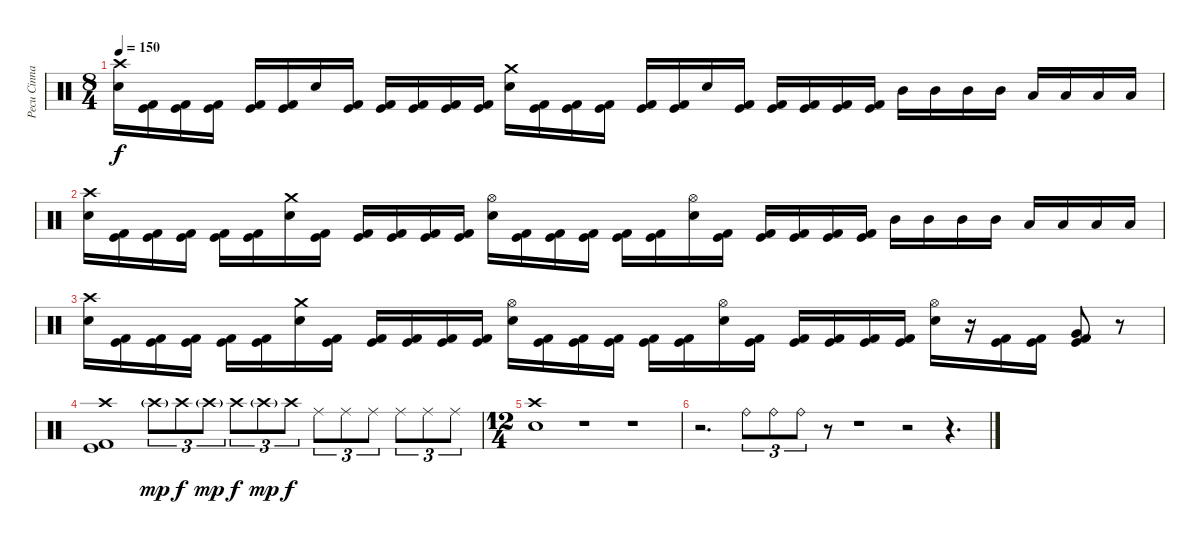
\track ("Pecu Cinnari" "Pecu Cinna") {instrument percussion}
\staff {score}
\articulation defaults
\ts (8 4)
\tempo 150
\clef neutral
\ks c
("Crash high (hit)" "Snare (hit) 2").16{dy f} ("Kick (hit)" "Kick (hit) 2").16 ("Kick (hit)" "Kick (hit) 2").16 ("Kick (hit)" "Kick (hit) 2").16 ("Kick (hit)" "Kick (hit) 2").16 ("Kick (hit)" "Kick (hit) 2").16 "Snare (hit) 2".16 ("Kick (hit)" "Kick (hit) 2").16 ("Kick (hit)" "Kick (hit) 2").16 ("Kick (hit)" "Kick (hit) 2").16 ("Kick (hit)" "Kick (hit) 2").16 ("Kick (hit)" "Kick (hit) 2").16 ("Crash medium (hit)" "Snare (hit) 2").16 ("Kick (hit)" "Kick (hit) 2").16 ("Kick (hit)" "Kick (hit) 2").16 ("Kick (hit)" "Kick (hit) 2").16 ("Kick (hit)" "Kick (hit) 2").16 ("Kick (hit)" "Kick (hit) 2").16 "Snare (hit) 2".16 ("Kick (hit)" "Kick (hit) 2").16 ("Kick (hit)" "Kick (hit) 2").16 ("Kick (hit)" "Kick (hit) 2").16 ("Kick (hit)" "Kick (hit) 2").16 ("Kick (hit)" "Kick (hit) 2").16 "Mid Tom (hit)".16 "Mid Tom (hit)".16 "Mid Tom (hit)".16 "Mid Tom (hit)".16 "Low Tom (hit)".16 "Low Tom (hit)".16 "Low Tom (hit)".16 "Low Tom (hit)".16 |
("Crash high (hit)" "Snare (hit) 2").16 ("Kick (hit)" "Kick (hit) 2").16 ("Kick (hit)" "Kick (hit) 2").16 ("Kick (hit)" "Kick (hit) 2").16 ("Kick (hit)" "Kick (hit) 2").16 ("Kick (hit)" "Kick (hit) 2").16 ("Crash medium (hit)" "Snare (hit) 2").16 ("Kick (hit)" "Kick (hit) 2").16 ("Kick (hit)" "Kick (hit) 2").16 ("Kick (hit)" "Kick (hit) 2").16 ("Kick (hit)" "Kick (hit) 2").16 ("Kick (hit)" "Kick (hit) 2").16 ("Hi-Hat (open)" "Snare (hit) 2").16 ("Kick (hit)" "Kick (hit) 2").16 ("Kick (hit)" "Kick (hit) 2").16 ("Kick (hit)" "Kick (hit) 2").16 ("Kick (hit)" "Kick (hit) 2").16 ("Kick (hit)" "Kick (hit) 2").16 ("Hi-Hat (open)" "Snare (hit) 2").16 ("Kick (hit)" "Kick (hit) 2").16 ("Kick (hit)" "Kick (hit) 2").16 ("Kick (hit)" "Kick (hit) 2").16 ("Kick (hit)" "Kick (hit) 2").16 ("Kick (hit)" "Kick (hit) 2").16 "Mid Tom (hit)".16 "Mid Tom (hit)".16 "Mid Tom (hit)".16 "Mid Tom (hit)".16 "Low Tom (hit)".16 "Low Tom (hit)".16 "Low Tom (hit)".16 "Low Tom (hit)".16 |
("Crash high (hit)" "Snare (hit) 2").16 ("Kick (hit)" "Kick (hit) 2").16 ("Kick (hit)" "Kick (hit) 2").16 ("Kick (hit)" "Kick (hit) 2").16 ("Kick (hit)" "Kick (hit) 2").16 ("Kick (hit)" "Kick (hit) 2").16 ("Crash medium (hit)" "Snare (hit) 2").16 ("Kick (hit)" "Kick (hit) 2").16 ("Kick (hit)" "Kick (hit) 2").16 ("Kick (hit)" "Kick (hit) 2").16 ("Kick (hit)" "Kick (hit) 2").16 ("Kick (hit)" "Kick (hit) 2").16 ("Hi-Hat (open)" "Snare (hit) 2").16 ("Kick (hit)" "Kick (hit) 2").16 ("Kick (hit)" "Kick (hit) 2").16 ("Kick (hit)" "Kick (hit) 2").16 ("Kick (hit)" "Kick (hit) 2").16 ("Kick (hit)" "Kick (hit) 2").16 ("Hi-Hat (open)" "Snare (hit) 2").16 ("Kick (hit)" "Kick (hit) 2").16 ("Kick (hit)" "Kick (hit) 2").16 ("Kick (hit)" "Kick (hit) 2").16 ("Kick (hit)" "Kick (hit) 2").16 ("Kick (hit)" "Kick (hit) 2").16 ("Hi-Hat (open)" "Snare (hit) 2").16 r.16 ("Kick (hit)" "Kick (hit) 2").16 ("Kick (hit)" "Kick (hit) 2").16 ("Very Low Tom (hit)" "Kick (hit)" "Kick (hit) 2").8 r.8 |
("Crash high (hit)" "Kick (hit)" "Kick (hit) 2").1 "Crash high (hit)"{g}.8{tu (3 2) dy mp} "Crash high (hit)"{x}.8{tu (3 2) dy f} "Crash high (hit)"{g}.8{tu (3 2) dy mp} "Crash high (hit)"{x}.8{tu (3 2) dy f} "Crash high (hit)"{g}.8{tu (3 2) dy mp} "Crash high (hit)"{x}.8{tu (3 2) dy f} "Ride (middle)".8{tu (3 2)} "Ride (middle)".8{tu (3 2)} "Ride (middle)".8{tu (3 2)} "Ride (middle)".8{tu (3 2)} "Ride (middle)".8{tu (3 2)} "Ride (middle)".8{tu (3 2)} |
\ts (12 4)
("Crash high (hit)" "Snare (hit) 2").1 r.1 r.1 |
r.2{d} "Ride (bell)".8{tu (3 2)} "Ride (bell)".8{tu (3 2)} "Ride (bell)".8{tu (3 2)} r.8 r.1 r.2 r.4{d}
